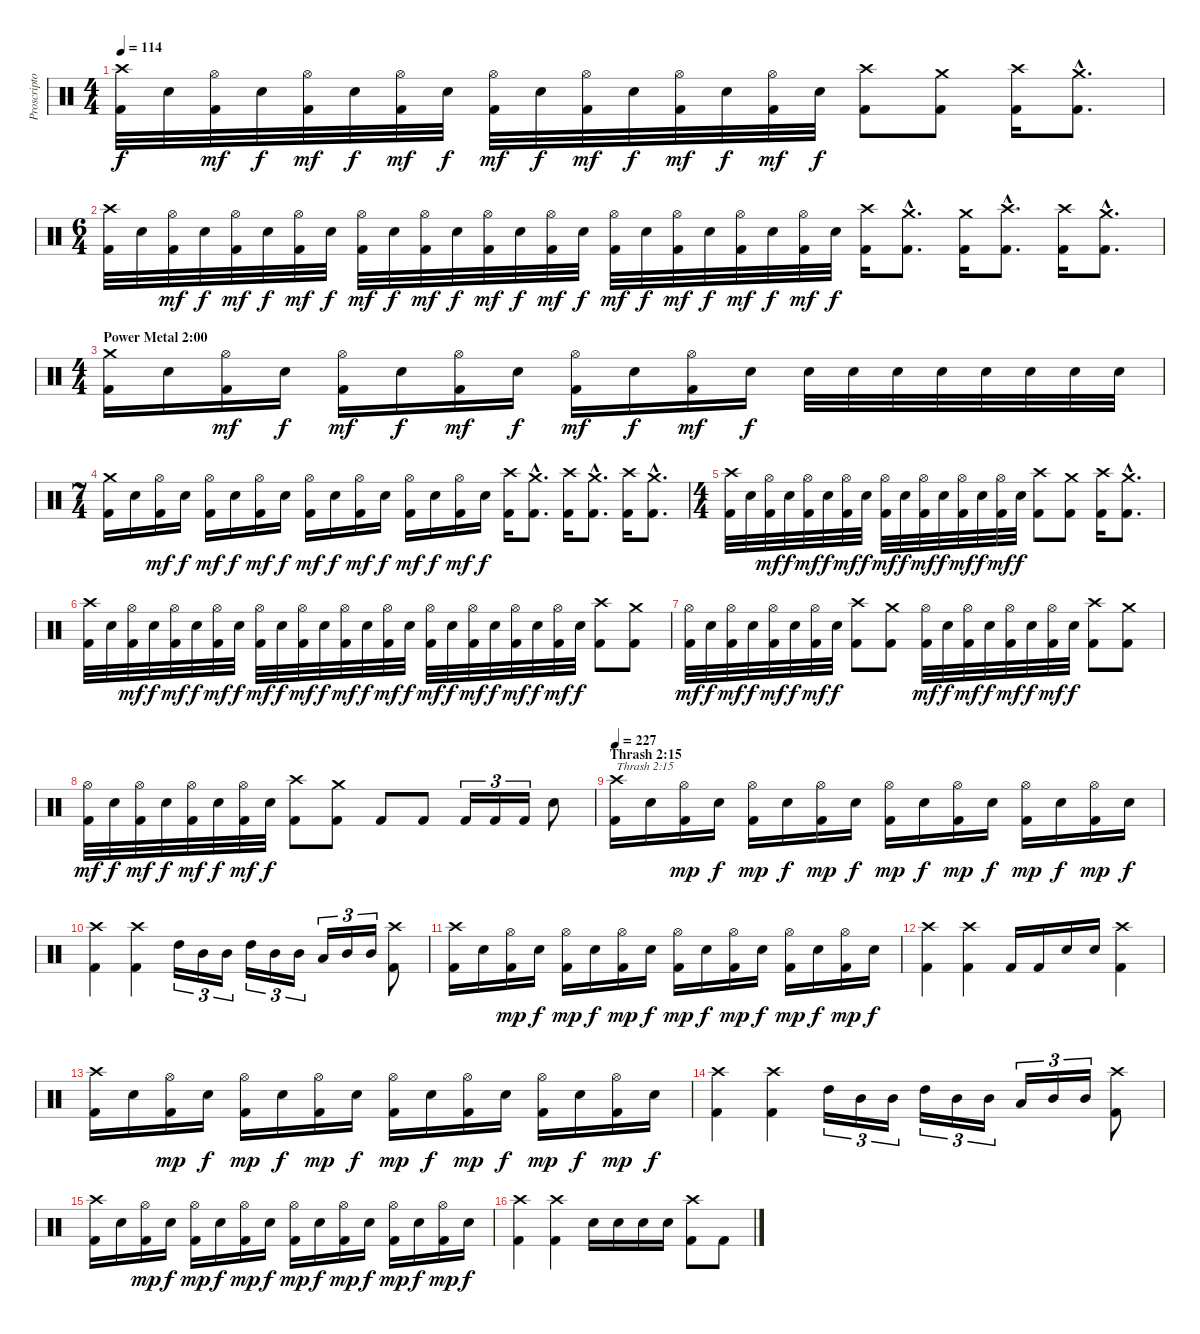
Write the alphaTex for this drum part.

\track ("Proscriptor (Drums)" "Proscripto") {instrument percussion}
\staff {score}
\articulation defaults
\ts (4 4)
\tempo 114
\clef neutral
\ks c
("Kick (hit) 2" "Crash high (hit)").32{dy f} "Electric Snare (hit)".32 ("Kick (hit) 2" "Hi-Hat (open)").32{dy mf} "Electric Snare (hit)".32{dy f} ("Kick (hit) 2" "Hi-Hat (open)").32{dy mf} "Electric Snare (hit)".32{dy f} ("Kick (hit) 2" "Hi-Hat (open)").32{dy mf} "Electric Snare (hit)".32{dy f} ("Kick (hit) 2" "Hi-Hat (open)").32{dy mf} "Electric Snare (hit)".32{dy f} ("Kick (hit) 2" "Hi-Hat (open)").32{dy mf} "Electric Snare (hit)".32{dy f} ("Kick (hit) 2" "Hi-Hat (open)").32{dy mf} "Electric Snare (hit)".32{dy f} ("Kick (hit) 2" "Hi-Hat (open)").32{dy mf} "Electric Snare (hit)".32{dy f} ("Kick (hit) 2" "Crash high (hit)").8 ("Kick (hit) 2" "Crash medium (hit)").8 ("Kick (hit) 2" "Crash high (hit)").16 ("Kick (hit) 2"{hac} "Crash medium (hit)"{hac}).8{d} |
\ts (6 4)
("Kick (hit) 2" "Crash high (hit)").32 "Electric Snare (hit)".32 ("Kick (hit) 2" "Hi-Hat (open)").32{dy mf} "Electric Snare (hit)".32{dy f} ("Kick (hit) 2" "Hi-Hat (open)").32{dy mf} "Electric Snare (hit)".32{dy f} ("Kick (hit) 2" "Hi-Hat (open)").32{dy mf} "Electric Snare (hit)".32{dy f} ("Kick (hit) 2" "Hi-Hat (open)").32{dy mf} "Electric Snare (hit)".32{dy f} ("Kick (hit) 2" "Hi-Hat (open)").32{dy mf} "Electric Snare (hit)".32{dy f} ("Kick (hit) 2" "Hi-Hat (open)").32{dy mf} "Electric Snare (hit)".32{dy f} ("Kick (hit) 2" "Hi-Hat (open)").32{dy mf} "Electric Snare (hit)".32{dy f} ("Kick (hit) 2" "Hi-Hat (open)").32{dy mf} "Electric Snare (hit)".32{dy f} ("Kick (hit) 2" "Hi-Hat (open)").32{dy mf} "Electric Snare (hit)".32{dy f} ("Kick (hit) 2" "Hi-Hat (open)").32{dy mf} "Electric Snare (hit)".32{dy f} ("Kick (hit) 2" "Hi-Hat (open)").32{dy mf} "Electric Snare (hit)".32{dy f} ("Kick (hit) 2" "Crash high (hit)").16 ("Kick (hit) 2"{hac} "Crash medium (hit)"{hac}).8{d} ("Kick (hit) 2" "Crash medium (hit)").16 ("Kick (hit) 2"{hac} "Crash high (hit)"{hac}).8{d} ("Kick (hit) 2" "Crash high (hit)").16 ("Kick (hit) 2"{hac} "Crash medium (hit)"{hac}).8{d} |
\ts (4 4)
\section ("" "Power Metal 2:00")
("Kick (hit) 2" "Crash medium (hit)").16 "Electric Snare (hit)".16 ("Kick (hit) 2" "Hi-Hat (open)").16{dy mf} "Electric Snare (hit)".16{dy f} ("Kick (hit) 2" "Hi-Hat (open)").16{dy mf} "Electric Snare (hit)".16{dy f} ("Kick (hit) 2" "Hi-Hat (open)").16{dy mf} "Electric Snare (hit)".16{dy f} ("Kick (hit) 2" "Hi-Hat (open)").16{dy mf} "Electric Snare (hit)".16{dy f} ("Kick (hit) 2" "Hi-Hat (open)").16{dy mf} "Electric Snare (hit)".16{dy f} "Electric Snare (hit)".32 "Electric Snare (hit)".32 "Electric Snare (hit)".32 "Electric Snare (hit)".32 "Electric Snare (hit)".32 "Electric Snare (hit)".32 "Electric Snare (hit)".32 "Electric Snare (hit)".32 |
\ts (7 4)
("Kick (hit) 2" "Crash medium (hit)").16 "Electric Snare (hit)".16 ("Kick (hit) 2" "Hi-Hat (open)").16{dy mf} "Electric Snare (hit)".16{dy f} ("Kick (hit) 2" "Hi-Hat (open)").16{dy mf} "Electric Snare (hit)".16{dy f} ("Kick (hit) 2" "Hi-Hat (open)").16{dy mf} "Electric Snare (hit)".16{dy f} ("Kick (hit) 2" "Hi-Hat (open)").16{dy mf} "Electric Snare (hit)".16{dy f} ("Kick (hit) 2" "Hi-Hat (open)").16{dy mf} "Electric Snare (hit)".16{dy f} ("Kick (hit) 2" "Hi-Hat (open)").16{dy mf} "Electric Snare (hit)".16{dy f} ("Kick (hit) 2" "Hi-Hat (open)").16{dy mf} "Electric Snare (hit)".16{dy f} ("Kick (hit) 2" "Crash high (hit)").16 ("Kick (hit) 2"{hac} "Crash medium (hit)"{hac}).8{d} ("Kick (hit) 2" "Crash high (hit)").16 ("Kick (hit) 2"{hac} "Crash medium (hit)"{hac}).8{d} ("Kick (hit) 2" "Crash high (hit)").16 ("Kick (hit) 2"{hac} "Crash medium (hit)"{hac}).8{d} |
\ts (4 4)
("Kick (hit) 2" "Crash high (hit)").32 "Electric Snare (hit)".32 ("Kick (hit) 2" "Hi-Hat (open)").32{dy mf} "Electric Snare (hit)".32{dy f} ("Kick (hit) 2" "Hi-Hat (open)").32{dy mf} "Electric Snare (hit)".32{dy f} ("Kick (hit) 2" "Hi-Hat (open)").32{dy mf} "Electric Snare (hit)".32{dy f} ("Kick (hit) 2" "Hi-Hat (open)").32{dy mf} "Electric Snare (hit)".32{dy f} ("Kick (hit) 2" "Hi-Hat (open)").32{dy mf} "Electric Snare (hit)".32{dy f} ("Kick (hit) 2" "Hi-Hat (open)").32{dy mf} "Electric Snare (hit)".32{dy f} ("Kick (hit) 2" "Hi-Hat (open)").32{dy mf} "Electric Snare (hit)".32{dy f} ("Kick (hit) 2" "Crash high (hit)").8 ("Kick (hit) 2" "Crash medium (hit)").8 ("Kick (hit) 2" "Crash high (hit)").16 ("Kick (hit) 2"{hac} "Crash medium (hit)"{hac}).8{d} |
("Kick (hit) 2" "Crash high (hit)").32 "Electric Snare (hit)".32 ("Kick (hit) 2" "Hi-Hat (open)").32{dy mf} "Electric Snare (hit)".32{dy f} ("Kick (hit) 2" "Hi-Hat (open)").32{dy mf} "Electric Snare (hit)".32{dy f} ("Kick (hit) 2" "Hi-Hat (open)").32{dy mf} "Electric Snare (hit)".32{dy f} ("Kick (hit) 2" "Hi-Hat (open)").32{dy mf} "Electric Snare (hit)".32{dy f} ("Kick (hit) 2" "Hi-Hat (open)").32{dy mf} "Electric Snare (hit)".32{dy f} ("Kick (hit) 2" "Hi-Hat (open)").32{dy mf} "Electric Snare (hit)".32{dy f} ("Kick (hit) 2" "Hi-Hat (open)").32{dy mf} "Electric Snare (hit)".32{dy f} ("Kick (hit) 2" "Hi-Hat (open)").32{dy mf} "Electric Snare (hit)".32{dy f} ("Kick (hit) 2" "Hi-Hat (open)").32{dy mf} "Electric Snare (hit)".32{dy f} ("Kick (hit) 2" "Hi-Hat (open)").32{dy mf} "Electric Snare (hit)".32{dy f} ("Kick (hit) 2" "Hi-Hat (open)").32{dy mf} "Electric Snare (hit)".32{dy f} ("Kick (hit) 2" "Crash high (hit)").8 ("Kick (hit) 2" "Crash medium (hit)").8 |
("Kick (hit) 2" "Hi-Hat (open)").32{dy mf} "Electric Snare (hit)".32{dy f} ("Kick (hit) 2" "Hi-Hat (open)").32{dy mf} "Electric Snare (hit)".32{dy f} ("Kick (hit) 2" "Hi-Hat (open)").32{dy mf} "Electric Snare (hit)".32{dy f} ("Kick (hit) 2" "Hi-Hat (open)").32{dy mf} "Electric Snare (hit)".32{dy f} ("Kick (hit) 2" "Crash high (hit)").8 ("Kick (hit) 2" "Crash medium (hit)").8 ("Kick (hit) 2" "Hi-Hat (open)").32{dy mf} "Electric Snare (hit)".32{dy f} ("Kick (hit) 2" "Hi-Hat (open)").32{dy mf} "Electric Snare (hit)".32{dy f} ("Kick (hit) 2" "Hi-Hat (open)").32{dy mf} "Electric Snare (hit)".32{dy f} ("Kick (hit) 2" "Hi-Hat (open)").32{dy mf} "Electric Snare (hit)".32{dy f} ("Kick (hit) 2" "Crash high (hit)").8 ("Kick (hit) 2" "Crash medium (hit)").8 |
("Kick (hit) 2" "Hi-Hat (open)").32{dy mf} "Electric Snare (hit)".32{dy f} ("Kick (hit) 2" "Hi-Hat (open)").32{dy mf} "Electric Snare (hit)".32{dy f} ("Kick (hit) 2" "Hi-Hat (open)").32{dy mf} "Electric Snare (hit)".32{dy f} ("Kick (hit) 2" "Hi-Hat (open)").32{dy mf} "Electric Snare (hit)".32{dy f} ("Kick (hit) 2" "Crash high (hit)").8 ("Kick (hit) 2" "Crash medium (hit)").8 "Kick (hit) 2".8 "Kick (hit) 2".8 "Kick (hit) 2".16{tu (3 2)} "Kick (hit) 2".16{tu (3 2)} "Kick (hit) 2".16{tu (3 2)} "Electric Snare (hit)".8 |
\section ("" "Thrash 2:15")
\tempo 227
("Kick (hit) 2" "Crash high (hit)").16{txt "Thrash 2:15"} "Electric Snare (hit)".16 ("Kick (hit) 2" "Hi-Hat (open)").16{dy mp} "Electric Snare (hit)".16{dy f} ("Kick (hit) 2" "Hi-Hat (open)").16{dy mp} "Electric Snare (hit)".16{dy f} ("Kick (hit) 2" "Hi-Hat (open)").16{dy mp} "Electric Snare (hit)".16{dy f} ("Kick (hit) 2" "Hi-Hat (open)").16{dy mp} "Electric Snare (hit)".16{dy f} ("Kick (hit) 2" "Hi-Hat (open)").16{dy mp} "Electric Snare (hit)".16{dy f} ("Kick (hit) 2" "Hi-Hat (open)").16{dy mp} "Electric Snare (hit)".16{dy f} ("Kick (hit) 2" "Hi-Hat (open)").16{dy mp} "Electric Snare (hit)".16{dy f} |
("Kick (hit) 2" "Crash high (hit)").4 ("Kick (hit) 2" "Crash high (hit)").4 "High Tom (hit)".16{tu (3 2)} "Mid Tom (hit)".16{tu (3 2)} "Mid Tom (hit)".16{tu (3 2)} "High Tom (hit)".16{tu (3 2)} "Mid Tom (hit)".16{tu (3 2)} "Mid Tom (hit)".16{tu (3 2)} "Low Tom (hit)".16{tu (3 2)} "Mid Tom (hit)".16{tu (3 2)} "Mid Tom (hit)".16{tu (3 2)} ("Kick (hit) 2" "Crash high (hit)").8 |
("Kick (hit) 2" "Crash high (hit)").16 "Electric Snare (hit)".16 ("Kick (hit) 2" "Hi-Hat (open)").16{dy mp} "Electric Snare (hit)".16{dy f} ("Kick (hit) 2" "Hi-Hat (open)").16{dy mp} "Electric Snare (hit)".16{dy f} ("Kick (hit) 2" "Hi-Hat (open)").16{dy mp} "Electric Snare (hit)".16{dy f} ("Kick (hit) 2" "Hi-Hat (open)").16{dy mp} "Electric Snare (hit)".16{dy f} ("Kick (hit) 2" "Hi-Hat (open)").16{dy mp} "Electric Snare (hit)".16{dy f} ("Kick (hit) 2" "Hi-Hat (open)").16{dy mp} "Electric Snare (hit)".16{dy f} ("Kick (hit) 2" "Hi-Hat (open)").16{dy mp} "Electric Snare (hit)".16{dy f} |
("Kick (hit) 2" "Crash high (hit)").4 ("Kick (hit) 2" "Crash high (hit)").4 "Kick (hit) 2".16 "Kick (hit) 2".16 "Electric Snare (hit)".16 "Electric Snare (hit)".16 ("Kick (hit) 2" "Crash high (hit)").4 |
("Kick (hit) 2" "Crash high (hit)").16 "Electric Snare (hit)".16 ("Kick (hit) 2" "Hi-Hat (open)").16{dy mp} "Electric Snare (hit)".16{dy f} ("Kick (hit) 2" "Hi-Hat (open)").16{dy mp} "Electric Snare (hit)".16{dy f} ("Kick (hit) 2" "Hi-Hat (open)").16{dy mp} "Electric Snare (hit)".16{dy f} ("Kick (hit) 2" "Hi-Hat (open)").16{dy mp} "Electric Snare (hit)".16{dy f} ("Kick (hit) 2" "Hi-Hat (open)").16{dy mp} "Electric Snare (hit)".16{dy f} ("Kick (hit) 2" "Hi-Hat (open)").16{dy mp} "Electric Snare (hit)".16{dy f} ("Kick (hit) 2" "Hi-Hat (open)").16{dy mp} "Electric Snare (hit)".16{dy f} |
("Kick (hit) 2" "Crash high (hit)").4 ("Kick (hit) 2" "Crash high (hit)").4 "High Tom (hit)".16{tu (3 2)} "Mid Tom (hit)".16{tu (3 2)} "Mid Tom (hit)".16{tu (3 2)} "High Tom (hit)".16{tu (3 2)} "Mid Tom (hit)".16{tu (3 2)} "Mid Tom (hit)".16{tu (3 2)} "Low Tom (hit)".16{tu (3 2)} "Mid Tom (hit)".16{tu (3 2)} "Mid Tom (hit)".16{tu (3 2)} ("Kick (hit) 2" "Crash high (hit)").8 |
("Kick (hit) 2" "Crash high (hit)").16 "Electric Snare (hit)".16 ("Kick (hit) 2" "Hi-Hat (open)").16{dy mp} "Electric Snare (hit)".16{dy f} ("Kick (hit) 2" "Hi-Hat (open)").16{dy mp} "Electric Snare (hit)".16{dy f} ("Kick (hit) 2" "Hi-Hat (open)").16{dy mp} "Electric Snare (hit)".16{dy f} ("Kick (hit) 2" "Hi-Hat (open)").16{dy mp} "Electric Snare (hit)".16{dy f} ("Kick (hit) 2" "Hi-Hat (open)").16{dy mp} "Electric Snare (hit)".16{dy f} ("Kick (hit) 2" "Hi-Hat (open)").16{dy mp} "Electric Snare (hit)".16{dy f} ("Kick (hit) 2" "Hi-Hat (open)").16{dy mp} "Electric Snare (hit)".16{dy f} |
("Kick (hit) 2" "Crash high (hit)").4 ("Kick (hit) 2" "Crash high (hit)").4 "Electric Snare (hit)".16 "Electric Snare (hit)".16 "Electric Snare (hit)".16 "Electric Snare (hit)".16 ("Kick (hit) 2" "Crash high (hit)").8 "Kick (hit) 2".8
